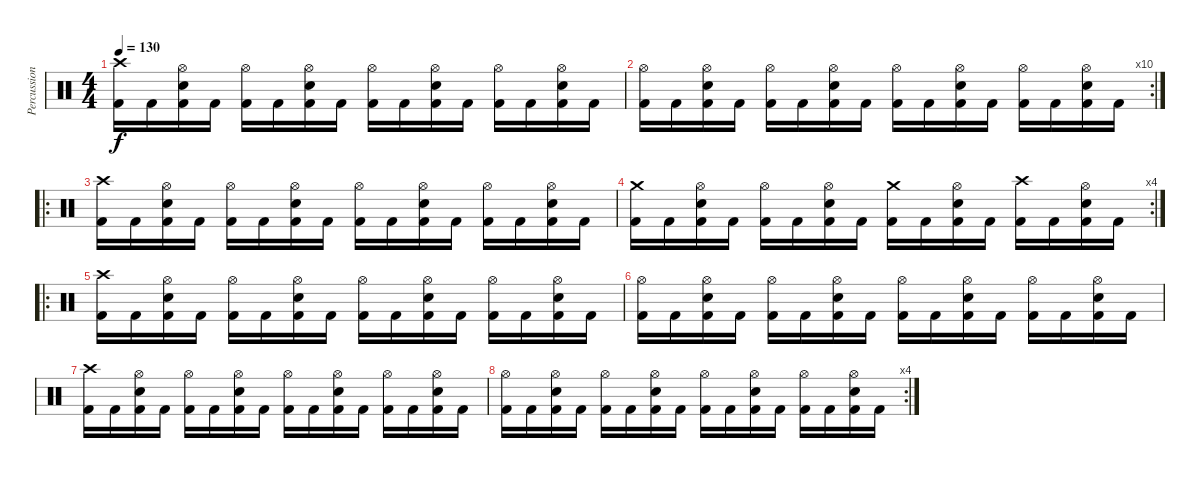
\track ("Percussions" "Percussion") {instrument percussion}
\staff {score}
\articulation defaults
\ts (4 4)
\tempo 130
\clef neutral
\ks c
("Crash high (hit)" "Kick (hit) 2").16{dy f} "Kick (hit) 2".16 ("Hi-Hat (open)" "Snare (hit) 2" "Kick (hit) 2").16 "Kick (hit) 2".16 ("Hi-Hat (open)" "Kick (hit) 2").16 "Kick (hit) 2".16 ("Hi-Hat (open)" "Snare (hit) 2" "Kick (hit) 2").16 "Kick (hit) 2".16 ("Hi-Hat (open)" "Kick (hit) 2").16 "Kick (hit) 2".16 ("Hi-Hat (open)" "Snare (hit) 2" "Kick (hit) 2").16 "Kick (hit) 2".16 ("Hi-Hat (open)" "Kick (hit) 2").16 "Kick (hit) 2".16 ("Hi-Hat (open)" "Snare (hit) 2" "Kick (hit) 2").16 "Kick (hit) 2".16 |
\rc 10
("Hi-Hat (open)" "Kick (hit) 2").16 "Kick (hit) 2".16 ("Hi-Hat (open)" "Snare (hit) 2" "Kick (hit) 2").16 "Kick (hit) 2".16 ("Hi-Hat (open)" "Kick (hit) 2").16 "Kick (hit) 2".16 ("Hi-Hat (open)" "Snare (hit) 2" "Kick (hit) 2").16 "Kick (hit) 2".16 ("Hi-Hat (open)" "Kick (hit) 2").16 "Kick (hit) 2".16 ("Hi-Hat (open)" "Snare (hit) 2" "Kick (hit) 2").16 "Kick (hit) 2".16 ("Hi-Hat (open)" "Kick (hit) 2").16 "Kick (hit) 2".16 ("Hi-Hat (open)" "Snare (hit) 2" "Kick (hit) 2").16 "Kick (hit) 2".16 |
\ro
("Crash high (hit)" "Kick (hit) 2").16 "Kick (hit) 2".16 ("Hi-Hat (open)" "Snare (hit) 2" "Kick (hit) 2").16 "Kick (hit) 2".16 ("Hi-Hat (open)" "Kick (hit) 2").16 "Kick (hit) 2".16 ("Hi-Hat (open)" "Snare (hit) 2" "Kick (hit) 2").16 "Kick (hit) 2".16 ("Hi-Hat (open)" "Kick (hit) 2").16 "Kick (hit) 2".16 ("Hi-Hat (open)" "Snare (hit) 2" "Kick (hit) 2").16 "Kick (hit) 2".16 ("Hi-Hat (open)" "Kick (hit) 2").16 "Kick (hit) 2".16 ("Hi-Hat (open)" "Snare (hit) 2" "Kick (hit) 2").16 "Kick (hit) 2".16 |
\rc 4
("Crash medium (hit)" "Kick (hit) 2").16 "Kick (hit) 2".16 ("Hi-Hat (open)" "Snare (hit) 2" "Kick (hit) 2").16 "Kick (hit) 2".16 ("Hi-Hat (open)" "Kick (hit) 2").16 "Kick (hit) 2".16 ("Hi-Hat (open)" "Snare (hit) 2" "Kick (hit) 2").16 "Kick (hit) 2".16 ("Crash medium (hit)" "Kick (hit) 2").16 "Kick (hit) 2".16 ("Hi-Hat (open)" "Snare (hit) 2" "Kick (hit) 2").16 "Kick (hit) 2".16 ("Crash high (hit)" "Kick (hit) 2").16 "Kick (hit) 2".16 ("Hi-Hat (open)" "Snare (hit) 2" "Kick (hit) 2").16 "Kick (hit) 2".16 |
\ro
("Crash high (hit)" "Kick (hit) 2").16 "Kick (hit) 2".16 ("Hi-Hat (open)" "Snare (hit) 2" "Kick (hit) 2").16 "Kick (hit) 2".16 ("Hi-Hat (open)" "Kick (hit) 2").16 "Kick (hit) 2".16 ("Hi-Hat (open)" "Snare (hit) 2" "Kick (hit) 2").16 "Kick (hit) 2".16 ("Hi-Hat (open)" "Kick (hit) 2").16 "Kick (hit) 2".16 ("Hi-Hat (open)" "Snare (hit) 2" "Kick (hit) 2").16 "Kick (hit) 2".16 ("Hi-Hat (open)" "Kick (hit) 2").16 "Kick (hit) 2".16 ("Hi-Hat (open)" "Snare (hit) 2" "Kick (hit) 2").16 "Kick (hit) 2".16 |
("Hi-Hat (open)" "Kick (hit) 2").16 "Kick (hit) 2".16 ("Hi-Hat (open)" "Snare (hit) 2" "Kick (hit) 2").16 "Kick (hit) 2".16 ("Hi-Hat (open)" "Kick (hit) 2").16 "Kick (hit) 2".16 ("Hi-Hat (open)" "Snare (hit) 2" "Kick (hit) 2").16 "Kick (hit) 2".16 ("Hi-Hat (open)" "Kick (hit) 2").16 "Kick (hit) 2".16 ("Hi-Hat (open)" "Snare (hit) 2" "Kick (hit) 2").16 "Kick (hit) 2".16 ("Hi-Hat (open)" "Kick (hit) 2").16 "Kick (hit) 2".16 ("Hi-Hat (open)" "Snare (hit) 2" "Kick (hit) 2").16 "Kick (hit) 2".16 |
("Crash high (hit)" "Kick (hit) 2").16 "Kick (hit) 2".16 ("Hi-Hat (open)" "Snare (hit) 2" "Kick (hit) 2").16 "Kick (hit) 2".16 ("Hi-Hat (open)" "Kick (hit) 2").16 "Kick (hit) 2".16 ("Hi-Hat (open)" "Snare (hit) 2" "Kick (hit) 2").16 "Kick (hit) 2".16 ("Hi-Hat (open)" "Kick (hit) 2").16 "Kick (hit) 2".16 ("Hi-Hat (open)" "Snare (hit) 2" "Kick (hit) 2").16 "Kick (hit) 2".16 ("Hi-Hat (open)" "Kick (hit) 2").16 "Kick (hit) 2".16 ("Hi-Hat (open)" "Snare (hit) 2" "Kick (hit) 2").16 "Kick (hit) 2".16 |
\rc 4
("Hi-Hat (open)" "Kick (hit) 2").16 "Kick (hit) 2".16 ("Hi-Hat (open)" "Snare (hit) 2" "Kick (hit) 2").16 "Kick (hit) 2".16 ("Hi-Hat (open)" "Kick (hit) 2").16 "Kick (hit) 2".16 ("Hi-Hat (open)" "Snare (hit) 2" "Kick (hit) 2").16 "Kick (hit) 2".16 ("Hi-Hat (open)" "Kick (hit) 2").16 "Kick (hit) 2".16 ("Hi-Hat (open)" "Snare (hit) 2" "Kick (hit) 2").16 "Kick (hit) 2".16 ("Hi-Hat (open)" "Kick (hit) 2").16 "Kick (hit) 2".16 ("Hi-Hat (open)" "Snare (hit) 2" "Kick (hit) 2").16 "Kick (hit) 2".16
